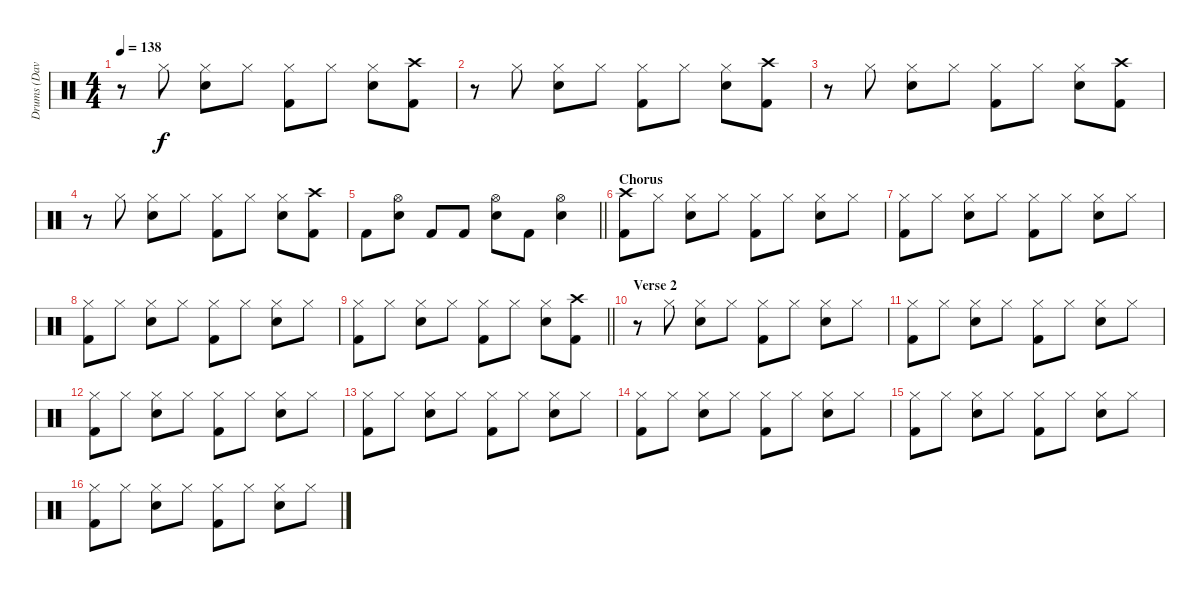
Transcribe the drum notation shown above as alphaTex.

\track ("Drums (Dave Holland)" "Drums (Dav") {instrument percussion}
\staff {score}
\articulation defaults
\ts (4 4)
\tempo 138
\clef neutral
\ks c
r.8{dy f} "Hi-Hat (closed)".8 ("Hi-Hat (closed)" "Snare (hit) 2").8 "Hi-Hat (closed)".8 ("Hi-Hat (closed)" "Kick (hit) 2").8 "Hi-Hat (closed)".8 ("Hi-Hat (closed)" "Snare (hit) 2").8 ("Crash high (hit)" "Kick (hit) 2").8 |
r.8 "Hi-Hat (closed)".8 ("Hi-Hat (closed)" "Snare (hit) 2").8 "Hi-Hat (closed)".8 ("Hi-Hat (closed)" "Kick (hit) 2").8 "Hi-Hat (closed)".8 ("Hi-Hat (closed)" "Snare (hit) 2").8 ("Crash high (hit)" "Kick (hit) 2").8 |
r.8 "Hi-Hat (closed)".8 ("Hi-Hat (closed)" "Snare (hit) 2").8 "Hi-Hat (closed)".8 ("Hi-Hat (closed)" "Kick (hit) 2").8 "Hi-Hat (closed)".8 ("Hi-Hat (closed)" "Snare (hit) 2").8 ("Crash high (hit)" "Kick (hit) 2").8 |
r.8 "Hi-Hat (closed)".8 ("Hi-Hat (closed)" "Snare (hit) 2").8 "Hi-Hat (closed)".8 ("Hi-Hat (closed)" "Kick (hit) 2").8 "Hi-Hat (closed)".8 ("Hi-Hat (closed)" "Snare (hit) 2").8 ("Crash high (hit)" "Kick (hit) 2").8 |
\barLineRight lightlight "Kick (hit) 2".8
("Hi-Hat (open)" "Snare (hit) 2").8 "Kick (hit) 2".8 "Kick (hit) 2".8 ("Hi-Hat (open)" "Snare (hit) 2").8 "Kick (hit) 2".8 ("Hi-Hat (open)" "Snare (hit) 2").4 |
\section ("" "Chorus")
("Crash high (hit)" "Kick (hit) 2").8 "Hi-Hat (closed)".8 ("Hi-Hat (closed)" "Snare (hit) 2").8 "Hi-Hat (closed)".8 ("Hi-Hat (closed)" "Kick (hit) 2").8 "Hi-Hat (closed)".8 ("Hi-Hat (closed)" "Snare (hit) 2").8 "Hi-Hat (closed)".8 |
("Hi-Hat (closed)" "Kick (hit) 2").8 "Hi-Hat (closed)".8 ("Hi-Hat (closed)" "Snare (hit) 2").8 "Hi-Hat (closed)".8 ("Hi-Hat (closed)" "Kick (hit) 2").8 "Hi-Hat (closed)".8 ("Hi-Hat (closed)" "Snare (hit) 2").8 "Hi-Hat (closed)".8 |
("Hi-Hat (closed)" "Kick (hit) 2").8 "Hi-Hat (closed)".8 ("Hi-Hat (closed)" "Snare (hit) 2").8 "Hi-Hat (closed)".8 ("Hi-Hat (closed)" "Kick (hit) 2").8 "Hi-Hat (closed)".8 ("Hi-Hat (closed)" "Snare (hit) 2").8 "Hi-Hat (closed)".8 |
\barLineRight lightlight
("Hi-Hat (closed)" "Kick (hit) 2").8 "Hi-Hat (closed)".8 ("Hi-Hat (closed)" "Snare (hit) 2").8 "Hi-Hat (closed)".8 ("Hi-Hat (closed)" "Kick (hit) 2").8 "Hi-Hat (closed)".8 ("Hi-Hat (closed)" "Snare (hit) 2").8 ("Crash high (hit)" "Kick (hit) 2").8 |
\section ("" "Verse 2")
r.8 "Hi-Hat (closed)".8 ("Hi-Hat (closed)" "Snare (hit) 2").8 "Hi-Hat (closed)".8 ("Hi-Hat (closed)" "Kick (hit) 2").8 "Hi-Hat (closed)".8 ("Hi-Hat (closed)" "Snare (hit) 2").8 "Hi-Hat (closed)".8 |
("Hi-Hat (closed)" "Kick (hit) 2").8 "Hi-Hat (closed)".8 ("Hi-Hat (closed)" "Snare (hit) 2").8 "Hi-Hat (closed)".8 ("Hi-Hat (closed)" "Kick (hit) 2").8 "Hi-Hat (closed)".8 ("Hi-Hat (closed)" "Snare (hit) 2").8 "Hi-Hat (closed)".8 |
("Hi-Hat (closed)" "Kick (hit) 2").8 "Hi-Hat (closed)".8 ("Hi-Hat (closed)" "Snare (hit) 2").8 "Hi-Hat (closed)".8 ("Hi-Hat (closed)" "Kick (hit) 2").8 "Hi-Hat (closed)".8 ("Hi-Hat (closed)" "Snare (hit) 2").8 "Hi-Hat (closed)".8 |
("Hi-Hat (closed)" "Kick (hit) 2").8 "Hi-Hat (closed)".8 ("Hi-Hat (closed)" "Snare (hit) 2").8 "Hi-Hat (closed)".8 ("Hi-Hat (closed)" "Kick (hit) 2").8 "Hi-Hat (closed)".8 ("Hi-Hat (closed)" "Snare (hit) 2").8 "Hi-Hat (closed)".8 |
("Hi-Hat (closed)" "Kick (hit) 2").8 "Hi-Hat (closed)".8 ("Hi-Hat (closed)" "Snare (hit) 2").8 "Hi-Hat (closed)".8 ("Hi-Hat (closed)" "Kick (hit) 2").8 "Hi-Hat (closed)".8 ("Hi-Hat (closed)" "Snare (hit) 2").8 "Hi-Hat (closed)".8 |
("Hi-Hat (closed)" "Kick (hit) 2").8 "Hi-Hat (closed)".8 ("Hi-Hat (closed)" "Snare (hit) 2").8 "Hi-Hat (closed)".8 ("Hi-Hat (closed)" "Kick (hit) 2").8 "Hi-Hat (closed)".8 ("Hi-Hat (closed)" "Snare (hit) 2").8 "Hi-Hat (closed)".8 |
("Hi-Hat (closed)" "Kick (hit) 2").8 "Hi-Hat (closed)".8 ("Hi-Hat (closed)" "Snare (hit) 2").8 "Hi-Hat (closed)".8 ("Hi-Hat (closed)" "Kick (hit) 2").8 "Hi-Hat (closed)".8 ("Hi-Hat (closed)" "Snare (hit) 2").8 "Hi-Hat (closed)".8
